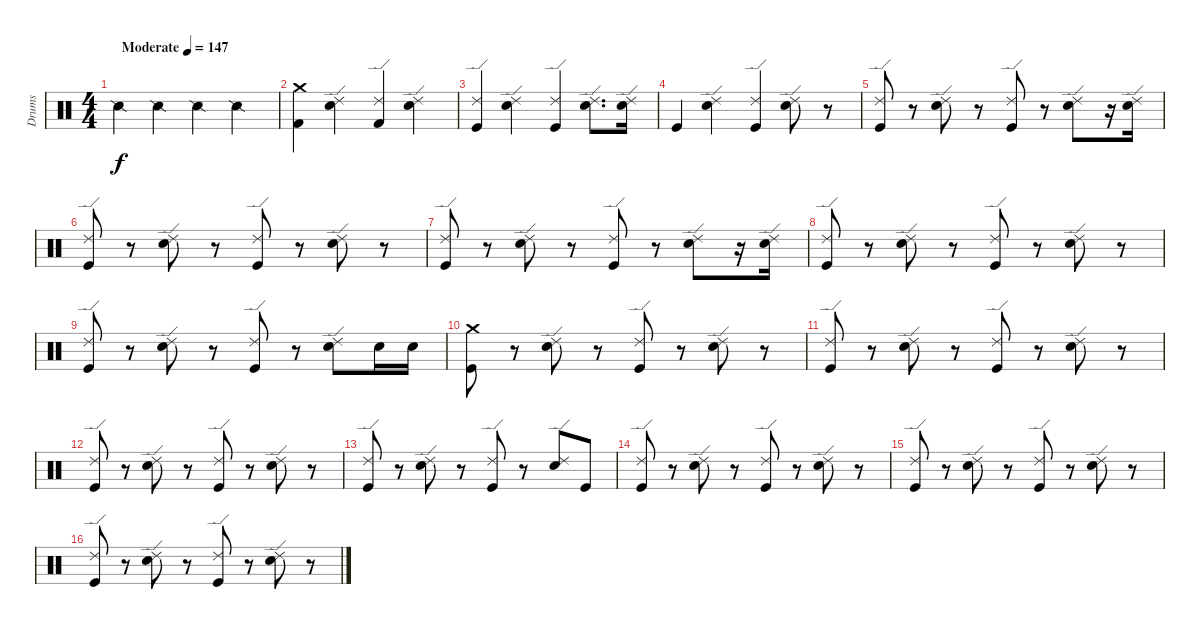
\track ("Drums" "Drums") {instrument percussion}
\staff {score}
\articulation defaults
\ts (4 4)
\tempo (147 "Moderate")
\clef neutral
\ks c "Snare (side stick) 2".4{dy f} "Snare (side stick) 2".4 "Snare (side stick) 2".4 "Snare (side stick) 2".4
|
("Crash medium (hit)" "Kick (hit) 2").4 ("Ride (edge) 2" "Snare (hit) 2").4 ("Ride (edge) 2" "Kick (hit) 2").4 ("Ride (edge) 2" "Snare (hit) 2").4 |
("Ride (edge) 2" "Kick (hit)").4 ("Ride (edge) 2" "Snare (hit) 2").4 ("Ride (edge) 2" "Kick (hit)").4 ("Ride (edge) 2" "Snare (hit) 2").8{d} ("Ride (edge) 2" "Snare (hit) 2").16 |
"Kick (hit)".4 ("Ride (edge) 2" "Snare (hit) 2").4 ("Ride (edge) 2" "Kick (hit)").4 ("Ride (edge) 2" "Snare (hit) 2").8 r.8 |
("Ride (edge) 2" "Kick (hit)").8 r.8 ("Ride (edge) 2" "Snare (hit) 2").8 r.8 ("Ride (edge) 2" "Kick (hit)").8 r.8 ("Ride (edge) 2" "Snare (hit) 2").8 r.16 ("Ride (edge) 2" "Snare (hit) 2").16 |
("Ride (edge) 2" "Kick (hit)").8 r.8 ("Ride (edge) 2" "Snare (hit) 2").8 r.8 ("Ride (edge) 2" "Kick (hit)").8 r.8 ("Ride (edge) 2" "Snare (hit) 2").8 r.8 |
("Ride (edge) 2" "Kick (hit)").8 r.8 ("Ride (edge) 2" "Snare (hit) 2").8 r.8 ("Ride (edge) 2" "Kick (hit)").8 r.8 ("Ride (edge) 2" "Snare (hit) 2").8 r.16 ("Ride (edge) 2" "Snare (hit) 2").16 |
("Ride (edge) 2" "Kick (hit)").8 r.8 ("Ride (edge) 2" "Snare (hit) 2").8 r.8 ("Ride (edge) 2" "Kick (hit)").8 r.8 ("Ride (edge) 2" "Snare (hit) 2").8 r.8 |
("Ride (edge) 2" "Kick (hit)").8 r.8 ("Ride (edge) 2" "Snare (hit) 2").8 r.8 ("Ride (edge) 2" "Kick (hit)").8 r.8 ("Snare (hit) 2" "Ride (edge) 2").8 "Snare (hit) 2".16 "Snare (hit) 2".16 |
("Crash medium (hit)" "Kick (hit)").8 r.8 ("Ride (edge) 2" "Snare (hit) 2").8 r.8 ("Ride (edge) 2" "Kick (hit)").8 r.8 ("Ride (edge) 2" "Snare (hit) 2").8 r.8 |
("Ride (edge) 2" "Kick (hit)").8 r.8 ("Ride (edge) 2" "Snare (hit) 2").8 r.8 ("Ride (edge) 2" "Kick (hit)").8 r.8 ("Ride (edge) 2" "Snare (hit) 2").8 r.8 |
("Ride (edge) 2" "Kick (hit)").8 r.8 ("Ride (edge) 2" "Snare (hit) 2").8 r.8 ("Ride (edge) 2" "Kick (hit)").8 r.8 ("Ride (edge) 2" "Snare (hit) 2").8 r.8 |
("Ride (edge) 2" "Kick (hit)").8 r.8 ("Ride (edge) 2" "Snare (hit) 2").8 r.8 ("Ride (edge) 2" "Kick (hit)").8 r.8 ("Ride (edge) 2" "Snare (hit) 2").8 "Kick (hit)".8 |
("Ride (edge) 2" "Kick (hit)").8 r.8 ("Ride (edge) 2" "Snare (hit) 2").8 r.8 ("Ride (edge) 2" "Kick (hit)").8 r.8 ("Ride (edge) 2" "Snare (hit) 2").8 r.8 |
("Ride (edge) 2" "Kick (hit)").8 r.8 ("Ride (edge) 2" "Snare (hit) 2").8 r.8 ("Ride (edge) 2" "Kick (hit)").8 r.8 ("Ride (edge) 2" "Snare (hit) 2").8 r.8 |
("Ride (edge) 2" "Kick (hit)").8 r.8 ("Ride (edge) 2" "Snare (hit) 2").8 r.8 ("Ride (edge) 2" "Kick (hit)").8 r.8 ("Ride (edge) 2" "Snare (hit) 2").8 r.8
